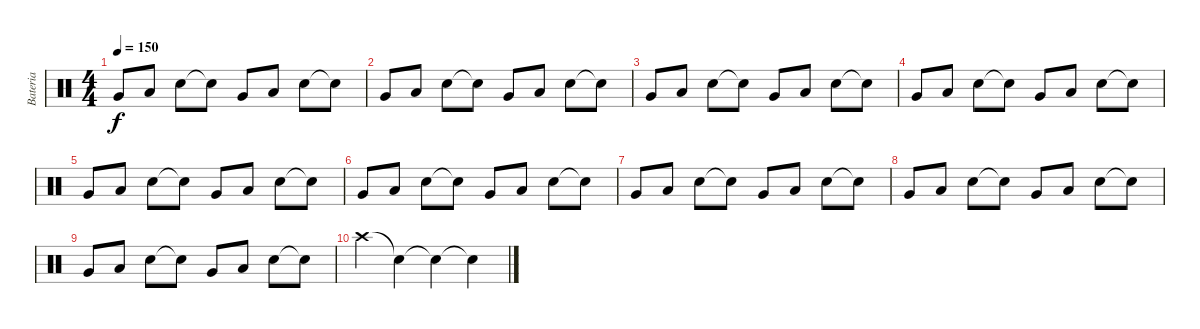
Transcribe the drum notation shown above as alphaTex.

\track ("Bateria" "Bateria") {instrument percussion}
\staff {score}
\articulation defaults
\ts (4 4)
\tempo 150
\clef neutral
\ks c "Very Low Tom (hit)".8{dy f} "Low Floor Tom (hit)".8 "Snare (hit) 2".8 "Snare (hit)"{t}.8 "Very Low Tom (hit)".8 "Low Floor Tom (hit)".8 "Snare (hit) 2".8 "Snare (hit)"{t}.8
|
"Very Low Tom (hit)".8 "Low Floor Tom (hit)".8 "Snare (hit) 2".8 "Snare (hit)"{t}.8 "Very Low Tom (hit)".8 "Low Floor Tom (hit)".8 "Snare (hit) 2".8 "Snare (hit)"{t}.8 |
"Very Low Tom (hit)".8 "Low Floor Tom (hit)".8 "Snare (hit) 2".8 "Snare (hit)"{t}.8 "Very Low Tom (hit)".8 "Low Floor Tom (hit)".8 "Snare (hit) 2".8 "Snare (hit)"{t}.8 |
"Very Low Tom (hit)".8 "Low Floor Tom (hit)".8 "Snare (hit) 2".8 "Snare (hit)"{t}.8 "Very Low Tom (hit)".8 "Low Floor Tom (hit)".8 "Snare (hit) 2".8 "Snare (hit)"{t}.8 |
"Very Low Tom (hit)".8 "Low Floor Tom (hit)".8 "Snare (hit) 2".8 "Snare (hit)"{t}.8 "Very Low Tom (hit)".8 "Low Floor Tom (hit)".8 "Snare (hit) 2".8 "Snare (hit)"{t}.8 |
"Very Low Tom (hit)".8 "Low Floor Tom (hit)".8 "Snare (hit) 2".8 "Snare (hit)"{t}.8 "Very Low Tom (hit)".8 "Low Floor Tom (hit)".8 "Snare (hit) 2".8 "Snare (hit)"{t}.8 |
"Very Low Tom (hit)".8 "Low Floor Tom (hit)".8 "Snare (hit) 2".8 "Snare (hit)"{t}.8 "Very Low Tom (hit)".8 "Low Floor Tom (hit)".8 "Snare (hit) 2".8 "Snare (hit)"{t}.8 |
"Very Low Tom (hit)".8 "Low Floor Tom (hit)".8 "Snare (hit) 2".8 "Snare (hit)"{t}.8 "Very Low Tom (hit)".8 "Low Floor Tom (hit)".8 "Snare (hit) 2".8 "Snare (hit)"{t}.8 |
"Very Low Tom (hit)".8 "Low Floor Tom (hit)".8 "Snare (hit) 2".8 "Snare (hit)"{t}.8 "Very Low Tom (hit)".8 "Low Floor Tom (hit)".8 "Snare (hit) 2".8 "Snare (hit)"{t}.8 |
"Crash high (hit)".4 "Snare (hit)"{t}.4 "Snare (hit)"{t}.4 "Snare (hit)"{t}.4
